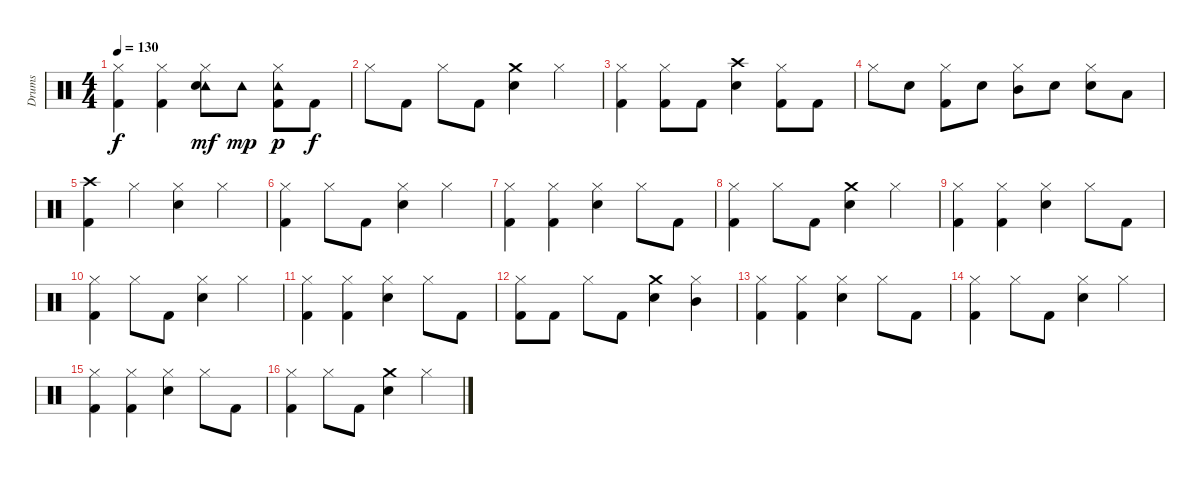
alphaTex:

\track ("Drums" "Drums") {instrument percussion}
\staff {score}
\articulation defaults
\ts (4 4)
\tempo 130
\clef neutral
\ks c
("Hi-Hat (closed)" "Kick (hit) 2").4{dy f} ("Hi-Hat (closed)" "Kick (hit) 2").4 ("Tambourine (hit)" "Hi-Hat (closed)" "Snare (hit) 2").8{dy mf} "Tambourine (hit)".8{dy mp} ("Tambourine (hit)" "Hi-Hat (closed)" "Kick (hit) 2").8{dy p} "Kick (hit) 2".8{dy f} |
"Hi-Hat (closed)".8 "Kick (hit) 2".8 "Hi-Hat (closed)".8 "Kick (hit) 2".8 ("Crash medium (hit)" "Snare (hit) 2").4 "Hi-Hat (closed)".4 |
("Hi-Hat (closed)" "Kick (hit) 2").4 ("Hi-Hat (closed)" "Kick (hit) 2").8 "Kick (hit) 2".8 ("Crash high (hit)" "Snare (hit) 2").4 ("Hi-Hat (closed)" "Kick (hit) 2").8 "Kick (hit) 2".8 |
"Hi-Hat (closed)".8 "Snare (hit) 2".8 ("Hi-Hat (closed)" "Kick (hit) 2").8 "Snare (hit) 2".8 ("Hi-Hat (closed)" "Mid Tom (hit)").8 "Snare (hit) 2".8 ("Hi-Hat (closed)" "Snare (hit) 2").8 "Low Tom (hit)".8 |
("Crash high (hit)" "Kick (hit) 2").4 "Hi-Hat (closed)".4 ("Hi-Hat (closed)" "Snare (hit) 2").4 "Hi-Hat (closed)".4 |
("Hi-Hat (closed)" "Kick (hit) 2").4 "Hi-Hat (closed)".8 "Kick (hit) 2".8 ("Hi-Hat (closed)" "Snare (hit) 2").4 "Hi-Hat (closed)".4 |
("Hi-Hat (closed)" "Kick (hit) 2").4 ("Hi-Hat (closed)" "Kick (hit) 2").4 ("Hi-Hat (closed)" "Snare (hit) 2").4 "Hi-Hat (closed)".8 "Kick (hit) 2".8 |
("Hi-Hat (closed)" "Kick (hit) 2").4 "Hi-Hat (closed)".8 "Kick (hit) 2".8 ("Crash medium (hit)" "Snare (hit) 2").4 "Hi-Hat (closed)".4 |
("Hi-Hat (closed)" "Kick (hit) 2").4 ("Hi-Hat (closed)" "Kick (hit) 2").4 ("Hi-Hat (closed)" "Snare (hit) 2").4 "Hi-Hat (closed)".8 "Kick (hit) 2".8 |
("Hi-Hat (closed)" "Kick (hit) 2").4 "Hi-Hat (closed)".8 "Kick (hit) 2".8 ("Hi-Hat (closed)" "Snare (hit) 2").4 "Hi-Hat (closed)".4 |
("Hi-Hat (closed)" "Kick (hit) 2").4 ("Hi-Hat (closed)" "Kick (hit) 2").4 ("Hi-Hat (closed)" "Snare (hit) 2").4 "Hi-Hat (closed)".8 "Kick (hit) 2".8 |
("Hi-Hat (closed)" "Kick (hit) 2").8 "Kick (hit) 2".8 "Hi-Hat (closed)".8 "Kick (hit) 2".8 ("Crash medium (hit)" "Snare (hit) 2").4 ("Hi-Hat (closed)" "Mid Tom (hit)").4 |
("Hi-Hat (closed)" "Kick (hit) 2").4 ("Hi-Hat (closed)" "Kick (hit) 2").4 ("Hi-Hat (closed)" "Snare (hit) 2").4 "Hi-Hat (closed)".8 "Kick (hit) 2".8 |
("Hi-Hat (closed)" "Kick (hit) 2").4 "Hi-Hat (closed)".8 "Kick (hit) 2".8 ("Hi-Hat (closed)" "Snare (hit) 2").4 "Hi-Hat (closed)".4 |
("Hi-Hat (closed)" "Kick (hit) 2").4 ("Hi-Hat (closed)" "Kick (hit) 2").4 ("Hi-Hat (closed)" "Snare (hit) 2").4 "Hi-Hat (closed)".8 "Kick (hit) 2".8 |
("Hi-Hat (closed)" "Kick (hit) 2").4 "Hi-Hat (closed)".8 "Kick (hit) 2".8 ("Crash medium (hit)" "Snare (hit) 2").4 "Hi-Hat (closed)".4
